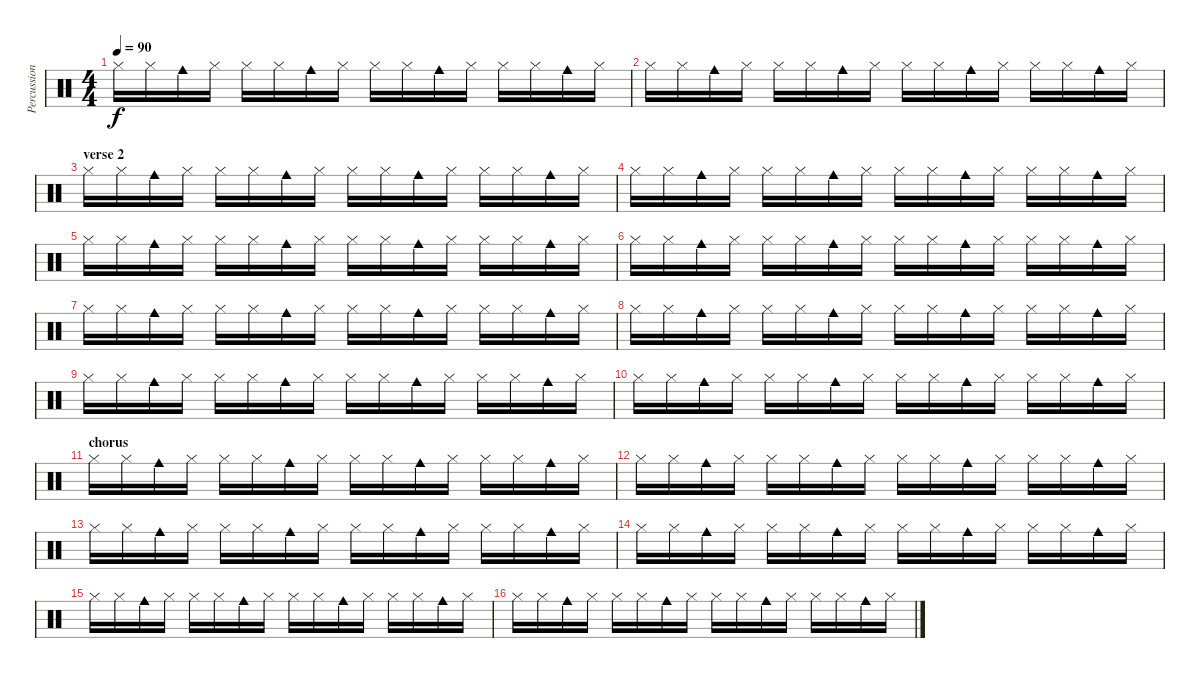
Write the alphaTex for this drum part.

\track ("Percussion" "Percussion") {instrument percussion}
\staff {score}
\articulation defaults
\ts (4 4)
\tempo 90
\clef neutral
\ks c "Hi-Hat (closed)".16{dy f} "Hi-Hat (closed)".16 "Cowbell medium (hit)".16 "Hi-Hat (closed)".16 "Hi-Hat (closed)".16 "Hi-Hat (closed)".16 "Cowbell medium (hit)".16 "Hi-Hat (closed)".16 "Hi-Hat (closed)".16 "Hi-Hat (closed)".16 "Cowbell medium (hit)".16 "Hi-Hat (closed)".16 "Hi-Hat (closed)".16 "Hi-Hat (closed)".16 "Cowbell medium (hit)".16 "Hi-Hat (closed)".16
|
"Hi-Hat (closed)".16 "Hi-Hat (closed)".16 "Cowbell medium (hit)".16 "Hi-Hat (closed)".16 "Hi-Hat (closed)".16 "Hi-Hat (closed)".16 "Cowbell medium (hit)".16 "Hi-Hat (closed)".16 "Hi-Hat (closed)".16 "Hi-Hat (closed)".16 "Cowbell medium (hit)".16 "Hi-Hat (closed)".16 "Hi-Hat (closed)".16 "Hi-Hat (closed)".16 "Cowbell medium (hit)".16 "Hi-Hat (closed)".16 |
\section ("" "verse 2")
"Hi-Hat (closed)".16 "Hi-Hat (closed)".16 "Cowbell medium (hit)".16 "Hi-Hat (closed)".16 "Hi-Hat (closed)".16 "Hi-Hat (closed)".16 "Cowbell medium (hit)".16 "Hi-Hat (closed)".16 "Hi-Hat (closed)".16 "Hi-Hat (closed)".16 "Cowbell medium (hit)".16 "Hi-Hat (closed)".16 "Hi-Hat (closed)".16 "Hi-Hat (closed)".16 "Cowbell medium (hit)".16 "Hi-Hat (closed)".16 |
"Hi-Hat (closed)".16 "Hi-Hat (closed)".16 "Cowbell medium (hit)".16 "Hi-Hat (closed)".16 "Hi-Hat (closed)".16 "Hi-Hat (closed)".16 "Cowbell medium (hit)".16 "Hi-Hat (closed)".16 "Hi-Hat (closed)".16 "Hi-Hat (closed)".16 "Cowbell medium (hit)".16 "Hi-Hat (closed)".16 "Hi-Hat (closed)".16 "Hi-Hat (closed)".16 "Cowbell medium (hit)".16 "Hi-Hat (closed)".16 |
"Hi-Hat (closed)".16 "Hi-Hat (closed)".16 "Cowbell medium (hit)".16 "Hi-Hat (closed)".16 "Hi-Hat (closed)".16 "Hi-Hat (closed)".16 "Cowbell medium (hit)".16 "Hi-Hat (closed)".16 "Hi-Hat (closed)".16 "Hi-Hat (closed)".16 "Cowbell medium (hit)".16 "Hi-Hat (closed)".16 "Hi-Hat (closed)".16 "Hi-Hat (closed)".16 "Cowbell medium (hit)".16 "Hi-Hat (closed)".16 |
"Hi-Hat (closed)".16 "Hi-Hat (closed)".16 "Cowbell medium (hit)".16 "Hi-Hat (closed)".16 "Hi-Hat (closed)".16 "Hi-Hat (closed)".16 "Cowbell medium (hit)".16 "Hi-Hat (closed)".16 "Hi-Hat (closed)".16 "Hi-Hat (closed)".16 "Cowbell medium (hit)".16 "Hi-Hat (closed)".16 "Hi-Hat (closed)".16 "Hi-Hat (closed)".16 "Cowbell medium (hit)".16 "Hi-Hat (closed)".16 |
"Hi-Hat (closed)".16 "Hi-Hat (closed)".16 "Cowbell medium (hit)".16 "Hi-Hat (closed)".16 "Hi-Hat (closed)".16 "Hi-Hat (closed)".16 "Cowbell medium (hit)".16 "Hi-Hat (closed)".16 "Hi-Hat (closed)".16 "Hi-Hat (closed)".16 "Cowbell medium (hit)".16 "Hi-Hat (closed)".16 "Hi-Hat (closed)".16 "Hi-Hat (closed)".16 "Cowbell medium (hit)".16 "Hi-Hat (closed)".16 |
"Hi-Hat (closed)".16 "Hi-Hat (closed)".16 "Cowbell medium (hit)".16 "Hi-Hat (closed)".16 "Hi-Hat (closed)".16 "Hi-Hat (closed)".16 "Cowbell medium (hit)".16 "Hi-Hat (closed)".16 "Hi-Hat (closed)".16 "Hi-Hat (closed)".16 "Cowbell medium (hit)".16 "Hi-Hat (closed)".16 "Hi-Hat (closed)".16 "Hi-Hat (closed)".16 "Cowbell medium (hit)".16 "Hi-Hat (closed)".16 |
"Hi-Hat (closed)".16 "Hi-Hat (closed)".16 "Cowbell medium (hit)".16 "Hi-Hat (closed)".16 "Hi-Hat (closed)".16 "Hi-Hat (closed)".16 "Cowbell medium (hit)".16 "Hi-Hat (closed)".16 "Hi-Hat (closed)".16 "Hi-Hat (closed)".16 "Cowbell medium (hit)".16 "Hi-Hat (closed)".16 "Hi-Hat (closed)".16 "Hi-Hat (closed)".16 "Cowbell medium (hit)".16 "Hi-Hat (closed)".16 |
"Hi-Hat (closed)".16 "Hi-Hat (closed)".16 "Cowbell medium (hit)".16 "Hi-Hat (closed)".16 "Hi-Hat (closed)".16 "Hi-Hat (closed)".16 "Cowbell medium (hit)".16 "Hi-Hat (closed)".16 "Hi-Hat (closed)".16 "Hi-Hat (closed)".16 "Cowbell medium (hit)".16 "Hi-Hat (closed)".16 "Hi-Hat (closed)".16 "Hi-Hat (closed)".16 "Cowbell medium (hit)".16 "Hi-Hat (closed)".16 |
\section ("" "chorus")
"Hi-Hat (closed)".16 "Hi-Hat (closed)".16 "Cowbell medium (hit)".16 "Hi-Hat (closed)".16 "Hi-Hat (closed)".16 "Hi-Hat (closed)".16 "Cowbell medium (hit)".16 "Hi-Hat (closed)".16 "Hi-Hat (closed)".16 "Hi-Hat (closed)".16 "Cowbell medium (hit)".16 "Hi-Hat (closed)".16 "Hi-Hat (closed)".16 "Hi-Hat (closed)".16 "Cowbell medium (hit)".16 "Hi-Hat (closed)".16 |
"Hi-Hat (closed)".16 "Hi-Hat (closed)".16 "Cowbell medium (hit)".16 "Hi-Hat (closed)".16 "Hi-Hat (closed)".16 "Hi-Hat (closed)".16 "Cowbell medium (hit)".16 "Hi-Hat (closed)".16 "Hi-Hat (closed)".16 "Hi-Hat (closed)".16 "Cowbell medium (hit)".16 "Hi-Hat (closed)".16 "Hi-Hat (closed)".16 "Hi-Hat (closed)".16 "Cowbell medium (hit)".16 "Hi-Hat (closed)".16 |
"Hi-Hat (closed)".16 "Hi-Hat (closed)".16 "Cowbell medium (hit)".16 "Hi-Hat (closed)".16 "Hi-Hat (closed)".16 "Hi-Hat (closed)".16 "Cowbell medium (hit)".16 "Hi-Hat (closed)".16 "Hi-Hat (closed)".16 "Hi-Hat (closed)".16 "Cowbell medium (hit)".16 "Hi-Hat (closed)".16 "Hi-Hat (closed)".16 "Hi-Hat (closed)".16 "Cowbell medium (hit)".16 "Hi-Hat (closed)".16 |
"Hi-Hat (closed)".16 "Hi-Hat (closed)".16 "Cowbell medium (hit)".16 "Hi-Hat (closed)".16 "Hi-Hat (closed)".16 "Hi-Hat (closed)".16 "Cowbell medium (hit)".16 "Hi-Hat (closed)".16 "Hi-Hat (closed)".16 "Hi-Hat (closed)".16 "Cowbell medium (hit)".16 "Hi-Hat (closed)".16 "Hi-Hat (closed)".16 "Hi-Hat (closed)".16 "Cowbell medium (hit)".16 "Hi-Hat (closed)".16 |
"Hi-Hat (closed)".16 "Hi-Hat (closed)".16 "Cowbell medium (hit)".16 "Hi-Hat (closed)".16 "Hi-Hat (closed)".16 "Hi-Hat (closed)".16 "Cowbell medium (hit)".16 "Hi-Hat (closed)".16 "Hi-Hat (closed)".16 "Hi-Hat (closed)".16 "Cowbell medium (hit)".16 "Hi-Hat (closed)".16 "Hi-Hat (closed)".16 "Hi-Hat (closed)".16 "Cowbell medium (hit)".16 "Hi-Hat (closed)".16 |
"Hi-Hat (closed)".16 "Hi-Hat (closed)".16 "Cowbell medium (hit)".16 "Hi-Hat (closed)".16 "Hi-Hat (closed)".16 "Hi-Hat (closed)".16 "Cowbell medium (hit)".16 "Hi-Hat (closed)".16 "Hi-Hat (closed)".16 "Hi-Hat (closed)".16 "Cowbell medium (hit)".16 "Hi-Hat (closed)".16 "Hi-Hat (closed)".16 "Hi-Hat (closed)".16 "Cowbell medium (hit)".16 "Hi-Hat (closed)".16
